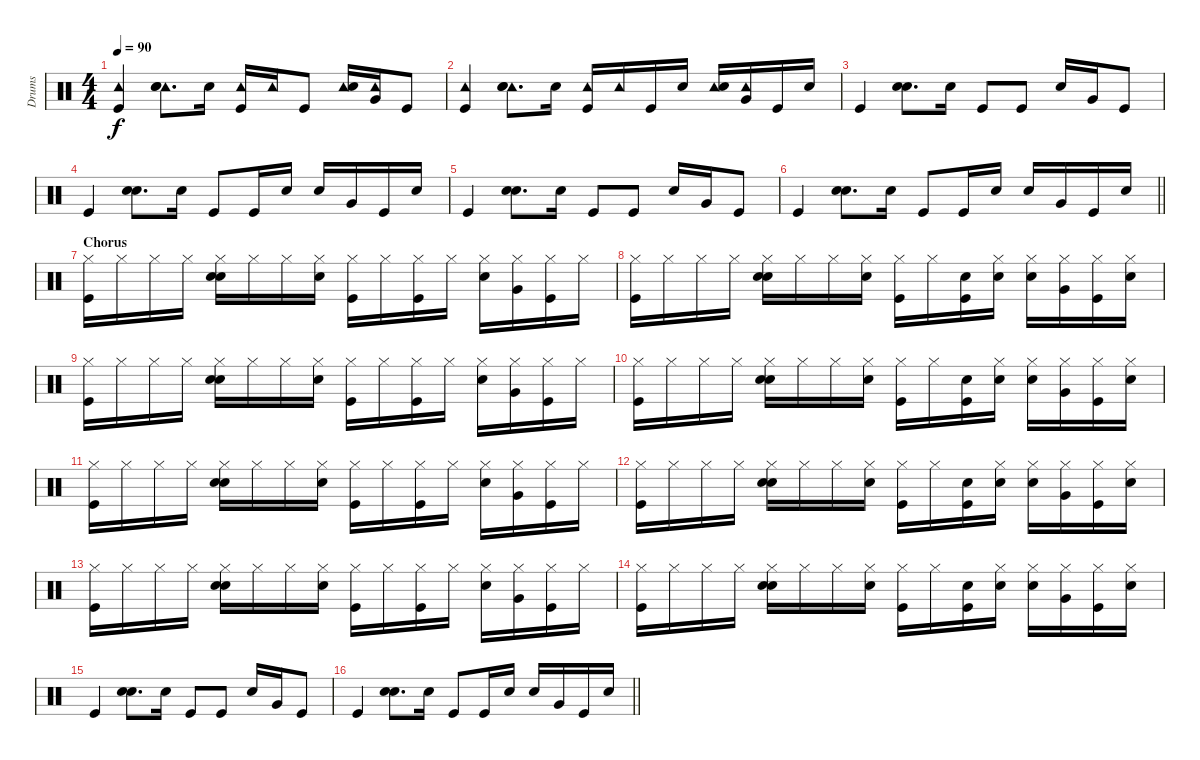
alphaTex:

\track ("Drums" "Drums") {instrument percussion}
\staff {score}
\articulation defaults
\ts (4 4)
\tempo 90
\clef neutral
\ks c
("Tambourine (hit)" "Kick (hit)").4{dy f} ("Tambourine (hit)" "Electric Snare (hit)" "Hand Clap (hit)").8{d} "Electric Snare (hit)".16 ("Tambourine (hit)" "Kick (hit)").16 "Tambourine (hit)".16 "Kick (hit)".8 ("Tambourine (hit)" "Electric Snare (hit)").16 ("Tambourine (hit)" "Very Low Tom (hit)").16 "Kick (hit)".8 |
("Tambourine (hit)" "Kick (hit)").4 ("Tambourine (hit)" "Electric Snare (hit)" "Hand Clap (hit)").8{d} "Electric Snare (hit)".16 ("Tambourine (hit)" "Kick (hit)").16 "Tambourine (hit)".16 "Kick (hit)".16 "Electric Snare (hit)".16 ("Tambourine (hit)" "Electric Snare (hit)").16 ("Tambourine (hit)" "Very Low Tom (hit)").16 "Kick (hit)".16 "Electric Snare (hit)".16 |
"Kick (hit)".4 ("Electric Snare (hit)" "Hand Clap (hit)").8{d} "Electric Snare (hit)".16 "Kick (hit)".8 "Kick (hit)".8 "Electric Snare (hit)".16 "Very Low Tom (hit)".16 "Kick (hit)".8 |
"Kick (hit)".4 ("Electric Snare (hit)" "Hand Clap (hit)").8{d} "Electric Snare (hit)".16 "Kick (hit)".8 "Kick (hit)".16 "Electric Snare (hit)".16 "Electric Snare (hit)".16 "Very Low Tom (hit)".16 "Kick (hit)".16 "Electric Snare (hit)".16 |
"Kick (hit)".4 ("Electric Snare (hit)" "Hand Clap (hit)").8{d} "Electric Snare (hit)".16 "Kick (hit)".8 "Kick (hit)".8 "Electric Snare (hit)".16 "Very Low Tom (hit)".16 "Kick (hit)".8 |
\barLineRight lightlight "Kick (hit)".4
("Electric Snare (hit)" "Hand Clap (hit)").8{d} "Electric Snare (hit)".16 "Kick (hit)".8 "Kick (hit)".16 "Electric Snare (hit)".16 "Electric Snare (hit)".16 "Very Low Tom (hit)".16 "Kick (hit)".16 "Electric Snare (hit)".16 |
\section ("" "Chorus")
("Hi-Hat (closed)" "Kick (hit)").16 "Hi-Hat (closed)".16 "Hi-Hat (closed)".16 "Hi-Hat (closed)".16 ("Hi-Hat (closed)" "Electric Snare (hit)" "Hand Clap (hit)").16 "Hi-Hat (closed)".16 "Hi-Hat (closed)".16 ("Hi-Hat (closed)" "Electric Snare (hit)").16 ("Hi-Hat (closed)" "Kick (hit)").16 "Hi-Hat (closed)".16 ("Hi-Hat (closed)" "Kick (hit)").16 "Hi-Hat (closed)".16 ("Hi-Hat (closed)" "Electric Snare (hit)").16 ("Hi-Hat (closed)" "Very Low Tom (hit)").16 ("Hi-Hat (closed)" "Kick (hit)").16 "Hi-Hat (closed)".16 |
("Hi-Hat (closed)" "Kick (hit)").16 "Hi-Hat (closed)".16 "Hi-Hat (closed)".16 "Hi-Hat (closed)".16 ("Hi-Hat (closed)" "Electric Snare (hit)" "Hand Clap (hit)").16 "Hi-Hat (closed)".16 "Hi-Hat (closed)".16 ("Hi-Hat (closed)" "Electric Snare (hit)").16 ("Hi-Hat (closed)" "Kick (hit)").16 "Hi-Hat (closed)".16 ("Snare (hit)" "Kick (hit)").16 ("Hi-Hat (closed)" "Electric Snare (hit)").16 ("Hi-Hat (closed)" "Electric Snare (hit)").16 ("Hi-Hat (closed)" "Very Low Tom (hit)").16 ("Hi-Hat (closed)" "Kick (hit)").16 ("Hi-Hat (closed)" "Electric Snare (hit)").16 |
("Hi-Hat (closed)" "Kick (hit)").16 "Hi-Hat (closed)".16 "Hi-Hat (closed)".16 "Hi-Hat (closed)".16 ("Hi-Hat (closed)" "Electric Snare (hit)" "Hand Clap (hit)").16 "Hi-Hat (closed)".16 "Hi-Hat (closed)".16 ("Hi-Hat (closed)" "Electric Snare (hit)").16 ("Hi-Hat (closed)" "Kick (hit)").16 "Hi-Hat (closed)".16 ("Hi-Hat (closed)" "Kick (hit)").16 "Hi-Hat (closed)".16 ("Hi-Hat (closed)" "Electric Snare (hit)").16 ("Hi-Hat (closed)" "Very Low Tom (hit)").16 ("Hi-Hat (closed)" "Kick (hit)").16 "Hi-Hat (closed)".16 |
("Hi-Hat (closed)" "Kick (hit)").16 "Hi-Hat (closed)".16 "Hi-Hat (closed)".16 "Hi-Hat (closed)".16 ("Hi-Hat (closed)" "Electric Snare (hit)" "Hand Clap (hit)").16 "Hi-Hat (closed)".16 "Hi-Hat (closed)".16 ("Hi-Hat (closed)" "Electric Snare (hit)").16 ("Hi-Hat (closed)" "Kick (hit)").16 "Hi-Hat (closed)".16 ("Snare (hit)" "Kick (hit)").16 ("Hi-Hat (closed)" "Electric Snare (hit)").16 ("Hi-Hat (closed)" "Electric Snare (hit)").16 ("Hi-Hat (closed)" "Very Low Tom (hit)").16 ("Hi-Hat (closed)" "Kick (hit)").16 ("Hi-Hat (closed)" "Electric Snare (hit)").16 |
("Hi-Hat (closed)" "Kick (hit)").16 "Hi-Hat (closed)".16 "Hi-Hat (closed)".16 "Hi-Hat (closed)".16 ("Hi-Hat (closed)" "Electric Snare (hit)" "Hand Clap (hit)").16 "Hi-Hat (closed)".16 "Hi-Hat (closed)".16 ("Hi-Hat (closed)" "Electric Snare (hit)").16 ("Hi-Hat (closed)" "Kick (hit)").16 "Hi-Hat (closed)".16 ("Hi-Hat (closed)" "Kick (hit)").16 "Hi-Hat (closed)".16 ("Hi-Hat (closed)" "Electric Snare (hit)").16 ("Hi-Hat (closed)" "Very Low Tom (hit)").16 ("Hi-Hat (closed)" "Kick (hit)").16 "Hi-Hat (closed)".16 |
("Hi-Hat (closed)" "Kick (hit)").16 "Hi-Hat (closed)".16 "Hi-Hat (closed)".16 "Hi-Hat (closed)".16 ("Hi-Hat (closed)" "Electric Snare (hit)" "Hand Clap (hit)").16 "Hi-Hat (closed)".16 "Hi-Hat (closed)".16 ("Hi-Hat (closed)" "Electric Snare (hit)").16 ("Hi-Hat (closed)" "Kick (hit)").16 "Hi-Hat (closed)".16 ("Snare (hit)" "Kick (hit)").16 ("Hi-Hat (closed)" "Electric Snare (hit)").16 ("Hi-Hat (closed)" "Electric Snare (hit)").16 ("Hi-Hat (closed)" "Very Low Tom (hit)").16 ("Hi-Hat (closed)" "Kick (hit)").16 ("Hi-Hat (closed)" "Electric Snare (hit)").16 |
("Hi-Hat (closed)" "Kick (hit)").16 "Hi-Hat (closed)".16 "Hi-Hat (closed)".16 "Hi-Hat (closed)".16 ("Hi-Hat (closed)" "Electric Snare (hit)" "Hand Clap (hit)").16 "Hi-Hat (closed)".16 "Hi-Hat (closed)".16 ("Hi-Hat (closed)" "Electric Snare (hit)").16 ("Hi-Hat (closed)" "Kick (hit)").16 "Hi-Hat (closed)".16 ("Hi-Hat (closed)" "Kick (hit)").16 "Hi-Hat (closed)".16 ("Hi-Hat (closed)" "Electric Snare (hit)").16 ("Hi-Hat (closed)" "Very Low Tom (hit)").16 ("Hi-Hat (closed)" "Kick (hit)").16 "Hi-Hat (closed)".16 |
("Hi-Hat (closed)" "Kick (hit)").16 "Hi-Hat (closed)".16 "Hi-Hat (closed)".16 "Hi-Hat (closed)".16 ("Hi-Hat (closed)" "Electric Snare (hit)" "Hand Clap (hit)").16 "Hi-Hat (closed)".16 "Hi-Hat (closed)".16 ("Hi-Hat (closed)" "Electric Snare (hit)").16 ("Hi-Hat (closed)" "Kick (hit)").16 "Hi-Hat (closed)".16 ("Snare (hit)" "Kick (hit)").16 ("Hi-Hat (closed)" "Electric Snare (hit)").16 ("Hi-Hat (closed)" "Electric Snare (hit)").16 ("Hi-Hat (closed)" "Very Low Tom (hit)").16 ("Hi-Hat (closed)" "Kick (hit)").16 ("Hi-Hat (closed)" "Electric Snare (hit)").16 |
"Kick (hit)".4 ("Electric Snare (hit)" "Hand Clap (hit)").8{d} "Electric Snare (hit)".16 "Kick (hit)".8 "Kick (hit)".8 "Electric Snare (hit)".16 "Very Low Tom (hit)".16 "Kick (hit)".8 |
\barLineRight lightlight "Kick (hit)".4
("Electric Snare (hit)" "Hand Clap (hit)").8{d} "Electric Snare (hit)".16 "Kick (hit)".8 "Kick (hit)".16 "Electric Snare (hit)".16 "Electric Snare (hit)".16 "Very Low Tom (hit)".16 "Kick (hit)".16 "Electric Snare (hit)".16
